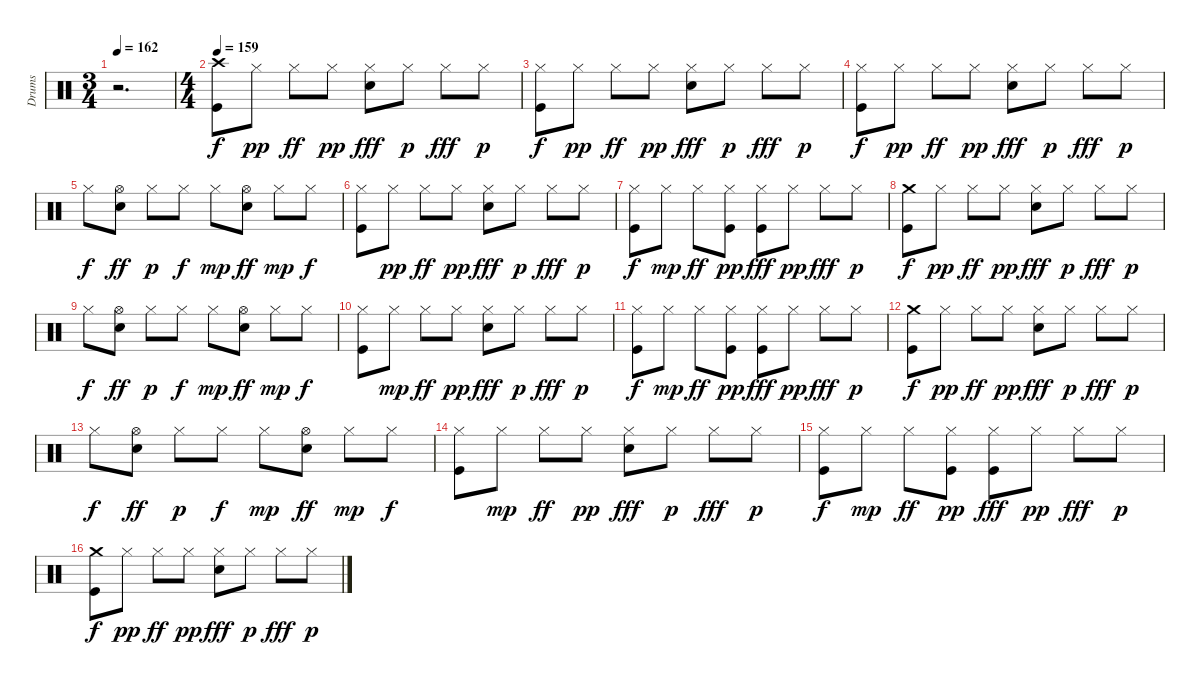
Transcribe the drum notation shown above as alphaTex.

\track ("Drums" "Drums") {instrument percussion}
\staff {score}
\articulation defaults
\ts (3 4)
\tempo 162
\clef neutral
\ks c
r.2{d dy f} |
\ts (4 4)
\tempo 159
("Kick (hit)" "Crash high (hit)").8 "Hi-Hat (closed)".8{dy pp} "Hi-Hat (closed)".8{dy ff} "Hi-Hat (closed)".8{dy pp} ("Electric Snare (hit)" "Hi-Hat (closed)").8{dy fff} "Hi-Hat (closed)".8{dy p} "Hi-Hat (closed)".8{dy fff} "Hi-Hat (closed)".8{dy p} |
("Kick (hit)" "Hi-Hat (closed)").8{dy f} "Hi-Hat (closed)".8{dy pp} "Hi-Hat (closed)".8{dy ff} "Hi-Hat (closed)".8{dy pp} ("Electric Snare (hit)" "Hi-Hat (closed)").8{dy fff} "Hi-Hat (closed)".8{dy p} "Hi-Hat (closed)".8{dy fff} "Hi-Hat (closed)".8{dy p} |
("Kick (hit)" "Hi-Hat (closed)").8{dy f} "Hi-Hat (closed)".8{dy pp} "Hi-Hat (closed)".8{dy ff} "Hi-Hat (closed)".8{dy pp} ("Electric Snare (hit)" "Hi-Hat (closed)").8{dy fff} "Hi-Hat (closed)".8{dy p} "Hi-Hat (closed)".8{dy fff} "Hi-Hat (closed)".8{dy p} |
"Hi-Hat (closed)".8{dy f} ("Electric Snare (hit)" "Hi-Hat (open)").8{dy ff} "Hi-Hat (closed)".8{dy p} "Hi-Hat (closed)".8{dy f} "Hi-Hat (closed)".8{dy mp} ("Electric Snare (hit)" "Hi-Hat (open)").8{dy ff} "Hi-Hat (closed)".8{dy mp} "Hi-Hat (closed)".8{dy f} |
("Kick (hit)" "Hi-Hat (closed)").8 "Hi-Hat (closed)".8{dy pp} "Hi-Hat (closed)".8{dy ff} "Hi-Hat (closed)".8{dy pp} ("Electric Snare (hit)" "Hi-Hat (closed)").8{dy fff} "Hi-Hat (closed)".8{dy p} "Hi-Hat (closed)".8{dy fff} "Hi-Hat (closed)".8{dy p} |
("Kick (hit)" "Hi-Hat (closed)").8{dy f} "Hi-Hat (closed)".8{dy mp} "Hi-Hat (closed)".8{dy ff} ("Kick (hit)" "Hi-Hat (closed)").8{dy pp} ("Kick (hit)" "Hi-Hat (closed)").8{dy fff} "Hi-Hat (closed)".8{dy pp} "Hi-Hat (closed)".8{dy fff} "Hi-Hat (closed)".8{dy p} |
("Kick (hit)" "Crash medium (hit)").8{dy f} "Hi-Hat (closed)".8{dy pp} "Hi-Hat (closed)".8{dy ff} "Hi-Hat (closed)".8{dy pp} ("Electric Snare (hit)" "Hi-Hat (closed)").8{dy fff} "Hi-Hat (closed)".8{dy p} "Hi-Hat (closed)".8{dy fff} "Hi-Hat (closed)".8{dy p} |
"Hi-Hat (closed)".8{dy f} ("Electric Snare (hit)" "Hi-Hat (open)").8{dy ff} "Hi-Hat (closed)".8{dy p} "Hi-Hat (closed)".8{dy f} "Hi-Hat (closed)".8{dy mp} ("Electric Snare (hit)" "Hi-Hat (open)").8{dy ff} "Hi-Hat (closed)".8{dy mp} "Hi-Hat (closed)".8{dy f} |
("Kick (hit)" "Hi-Hat (closed)").8 "Hi-Hat (closed)".8{dy mp} "Hi-Hat (closed)".8{dy ff} "Hi-Hat (closed)".8{dy pp} ("Electric Snare (hit)" "Hi-Hat (closed)").8{dy fff} "Hi-Hat (closed)".8{dy p} "Hi-Hat (closed)".8{dy fff} "Hi-Hat (closed)".8{dy p} |
("Kick (hit)" "Hi-Hat (closed)").8{dy f} "Hi-Hat (closed)".8{dy mp} "Hi-Hat (closed)".8{dy ff} ("Kick (hit)" "Hi-Hat (closed)").8{dy pp} ("Kick (hit)" "Hi-Hat (closed)").8{dy fff} "Hi-Hat (closed)".8{dy pp} "Hi-Hat (closed)".8{dy fff} "Hi-Hat (closed)".8{dy p} |
("Kick (hit)" "Crash medium (hit)").8{dy f} "Hi-Hat (closed)".8{dy pp} "Hi-Hat (closed)".8{dy ff} "Hi-Hat (closed)".8{dy pp} ("Electric Snare (hit)" "Hi-Hat (closed)").8{dy fff} "Hi-Hat (closed)".8{dy p} "Hi-Hat (closed)".8{dy fff} "Hi-Hat (closed)".8{dy p} |
"Hi-Hat (closed)".8{dy f} ("Electric Snare (hit)" "Hi-Hat (open)").8{dy ff} "Hi-Hat (closed)".8{dy p} "Hi-Hat (closed)".8{dy f} "Hi-Hat (closed)".8{dy mp} ("Electric Snare (hit)" "Hi-Hat (open)").8{dy ff} "Hi-Hat (closed)".8{dy mp} "Hi-Hat (closed)".8{dy f} |
("Kick (hit)" "Hi-Hat (closed)").8 "Hi-Hat (closed)".8{dy mp} "Hi-Hat (closed)".8{dy ff} "Hi-Hat (closed)".8{dy pp} ("Electric Snare (hit)" "Hi-Hat (closed)").8{dy fff} "Hi-Hat (closed)".8{dy p} "Hi-Hat (closed)".8{dy fff} "Hi-Hat (closed)".8{dy p} |
("Kick (hit)" "Hi-Hat (closed)").8{dy f} "Hi-Hat (closed)".8{dy mp} "Hi-Hat (closed)".8{dy ff} ("Kick (hit)" "Hi-Hat (closed)").8{dy pp} ("Kick (hit)" "Hi-Hat (closed)").8{dy fff} "Hi-Hat (closed)".8{dy pp} "Hi-Hat (closed)".8{dy fff} "Hi-Hat (closed)".8{dy p} |
("Kick (hit)" "Crash medium (hit)").8{dy f} "Hi-Hat (closed)".8{dy pp} "Hi-Hat (closed)".8{dy ff} "Hi-Hat (closed)".8{dy pp} ("Electric Snare (hit)" "Hi-Hat (closed)").8{dy fff} "Hi-Hat (closed)".8{dy p} "Hi-Hat (closed)".8{dy fff} "Hi-Hat (closed)".8{dy p}
